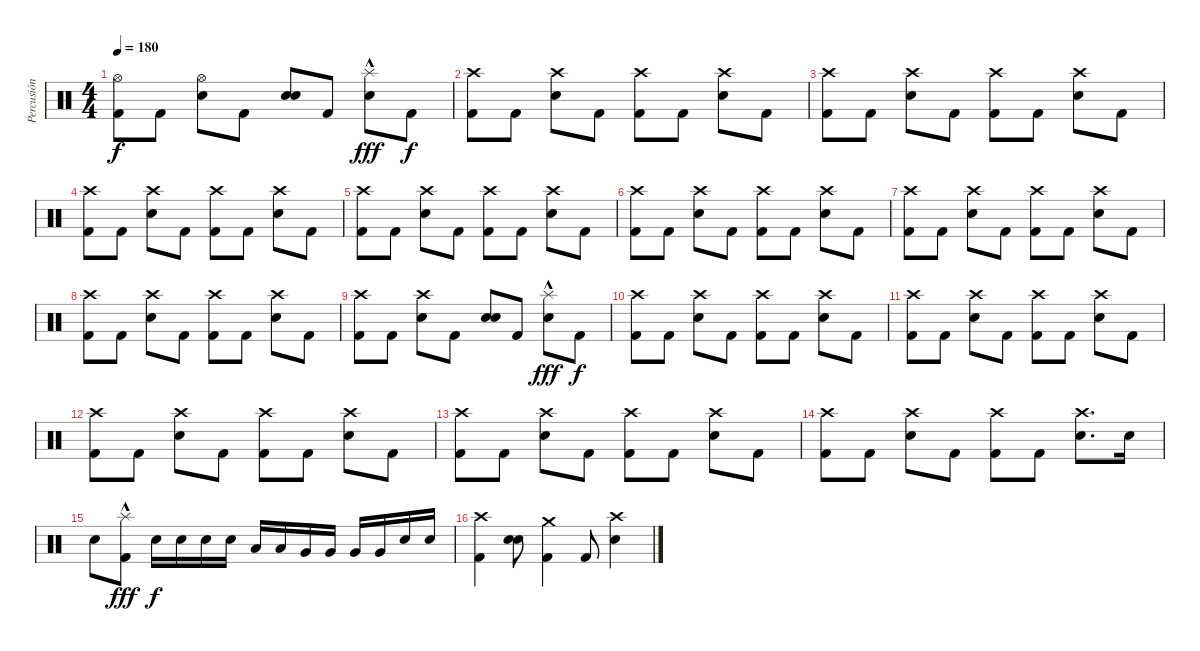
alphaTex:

\track ("Percusión" "Percusión") {instrument percussion}
\staff {score}
\articulation defaults
\ts (4 4)
\tempo 180
\clef neutral
\ks c
("Hi-Hat (open)" "Kick (hit) 2").8{dy f} "Kick (hit) 2".8 ("Hi-Hat (open)" "Electric Snare (hit)").8 "Kick (hit) 2".8 ("Electric Snare (hit)" "Electric Snare (hit)").8{bd 240} "Kick (hit) 2".8 ("Splash (hit)"{hac} "Electric Snare (hit)").8{dy fff} "Kick (hit) 2".8{dy f} |
("Crash high (hit)" "Kick (hit) 2").8 "Kick (hit) 2".8 ("Crash high (hit)" "Electric Snare (hit)").8 "Kick (hit) 2".8 ("Crash high (hit)" "Kick (hit) 2").8 "Kick (hit) 2".8 ("Crash high (hit)" "Electric Snare (hit)").8 "Kick (hit) 2".8 |
("Crash high (hit)" "Kick (hit) 2").8 "Kick (hit) 2".8 ("Crash high (hit)" "Electric Snare (hit)").8 "Kick (hit) 2".8 ("Crash high (hit)" "Kick (hit) 2").8 "Kick (hit) 2".8 ("Crash high (hit)" "Electric Snare (hit)").8 "Kick (hit) 2".8 |
("Crash high (hit)" "Kick (hit) 2").8 "Kick (hit) 2".8 ("Crash high (hit)" "Electric Snare (hit)").8 "Kick (hit) 2".8 ("Crash high (hit)" "Kick (hit) 2").8 "Kick (hit) 2".8 ("Crash high (hit)" "Electric Snare (hit)").8 "Kick (hit) 2".8 |
("Crash high (hit)" "Kick (hit) 2").8 "Kick (hit) 2".8 ("Crash high (hit)" "Electric Snare (hit)").8 "Kick (hit) 2".8 ("Crash high (hit)" "Kick (hit) 2").8 "Kick (hit) 2".8 ("Crash high (hit)" "Electric Snare (hit)").8 "Kick (hit) 2".8 |
("Crash high (hit)" "Kick (hit) 2").8 "Kick (hit) 2".8 ("Crash high (hit)" "Electric Snare (hit)").8 "Kick (hit) 2".8 ("Crash high (hit)" "Kick (hit) 2").8 "Kick (hit) 2".8 ("Crash high (hit)" "Electric Snare (hit)").8 "Kick (hit) 2".8 |
("Crash high (hit)" "Kick (hit) 2").8 "Kick (hit) 2".8 ("Crash high (hit)" "Electric Snare (hit)").8 "Kick (hit) 2".8 ("Crash high (hit)" "Kick (hit) 2").8 "Kick (hit) 2".8 ("Crash high (hit)" "Electric Snare (hit)").8 "Kick (hit) 2".8 |
("Crash high (hit)" "Kick (hit) 2").8 "Kick (hit) 2".8 ("Crash high (hit)" "Electric Snare (hit)").8 "Kick (hit) 2".8 ("Crash high (hit)" "Kick (hit) 2").8 "Kick (hit) 2".8 ("Crash high (hit)" "Electric Snare (hit)").8 "Kick (hit) 2".8 |
("Crash high (hit)" "Kick (hit) 2").8 "Kick (hit) 2".8 ("Crash high (hit)" "Electric Snare (hit)").8 "Kick (hit) 2".8 ("Electric Snare (hit)" "Electric Snare (hit)").8{bd 240} "Kick (hit) 2".8 ("Splash (hit)"{hac} "Electric Snare (hit)").8{dy fff} "Kick (hit) 2".8{dy f} |
("Crash high (hit)" "Kick (hit) 2").8 "Kick (hit) 2".8 ("Crash high (hit)" "Electric Snare (hit)").8 "Kick (hit) 2".8 ("Crash high (hit)" "Kick (hit) 2").8 "Kick (hit) 2".8 ("Crash high (hit)" "Electric Snare (hit)").8 "Kick (hit) 2".8 |
("Crash high (hit)" "Kick (hit) 2").8 "Kick (hit) 2".8 ("Crash high (hit)" "Electric Snare (hit)").8 "Kick (hit) 2".8 ("Crash high (hit)" "Kick (hit) 2").8 "Kick (hit) 2".8 ("Crash high (hit)" "Electric Snare (hit)").8 "Kick (hit) 2".8 |
("Crash high (hit)" "Kick (hit) 2").8 "Kick (hit) 2".8 ("Crash high (hit)" "Electric Snare (hit)").8 "Kick (hit) 2".8 ("Crash high (hit)" "Kick (hit) 2").8 "Kick (hit) 2".8 ("Crash high (hit)" "Electric Snare (hit)").8 "Kick (hit) 2".8 |
("Crash high (hit)" "Kick (hit) 2").8 "Kick (hit) 2".8 ("Crash high (hit)" "Electric Snare (hit)").8 "Kick (hit) 2".8 ("Crash high (hit)" "Kick (hit) 2").8 "Kick (hit) 2".8 ("Crash high (hit)" "Electric Snare (hit)").8 "Kick (hit) 2".8 |
("Crash high (hit)" "Kick (hit) 2").8 "Kick (hit) 2".8 ("Crash high (hit)" "Electric Snare (hit)").8 "Kick (hit) 2".8 ("Crash high (hit)" "Kick (hit) 2").8 "Kick (hit) 2".8 ("Crash high (hit)" "Electric Snare (hit)").8{d} "Electric Snare (hit)".16 |
"Electric Snare (hit)".8 ("Splash (hit)"{hac} "Kick (hit) 2").8{dy fff} "Electric Snare (hit)".16{dy f} "Electric Snare (hit)".16 "Electric Snare (hit)".16 "Electric Snare (hit)".16 "Low Tom (hit)".16 "Low Tom (hit)".16 "Very Low Tom (hit)".16 "Very Low Tom (hit)".16 "Very Low Tom (hit)".16 "Very Low Tom (hit)".16 "Electric Snare (hit)".16 "Electric Snare (hit)".16 |
("Crash high (hit)" "Kick (hit) 2").4 ("Electric Snare (hit)" "Electric Snare (hit)").8{bd 240} ("Crash medium (hit)" "Kick (hit) 2").4 "Kick (hit) 2".8 ("Crash high (hit)" "Electric Snare (hit)").4
